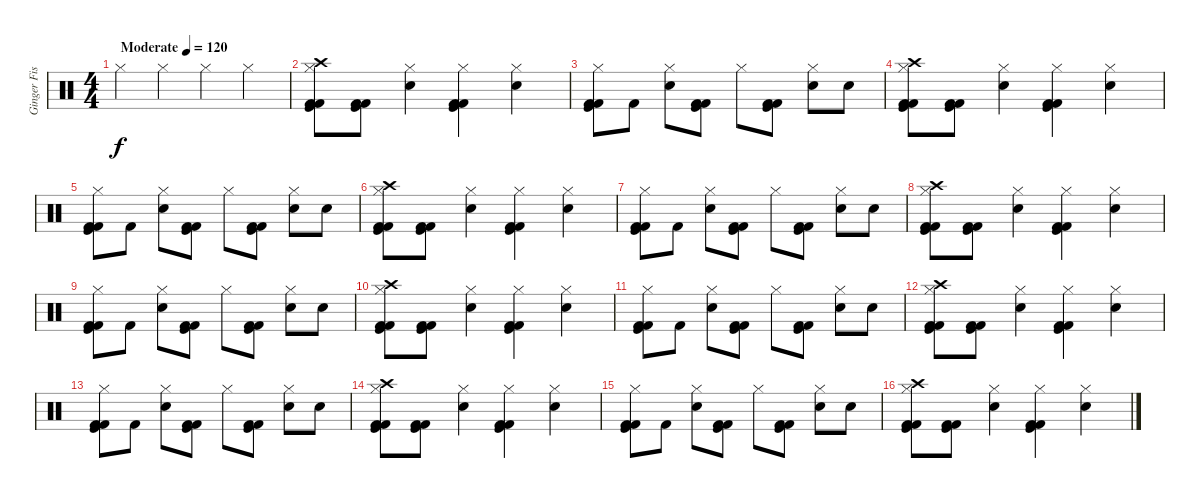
\track ("Ginger Fish" "Ginger Fis") {instrument percussion}
\staff {score}
\articulation defaults
\ts (4 4)
\tempo (120 "Moderate")
\clef neutral
\ks c "Hi-Hat (closed)".4{dy f} "Hi-Hat (closed)".4 "Hi-Hat (closed)".4 "Hi-Hat (closed)".4
|
("Crash high (hit)" "Hi-Hat (closed)" "Kick (hit) 2" "Kick (hit)" "Kick (hit) 2").8 ("Kick (hit) 2" "Kick (hit)" "Kick (hit) 2").8 ("Hi-Hat (closed)" "Electric Snare (hit)").4 ("Hi-Hat (closed)" "Kick (hit) 2" "Kick (hit)" "Kick (hit) 2").4 ("Hi-Hat (closed)" "Electric Snare (hit)").4 |
("Hi-Hat (closed)" "Kick (hit) 2" "Kick (hit)" "Kick (hit) 2").8 "Kick (hit) 2".8 ("Hi-Hat (closed)" "Electric Snare (hit)").8 ("Kick (hit) 2" "Kick (hit)" "Kick (hit) 2").8 "Hi-Hat (closed)".8 ("Kick (hit) 2" "Kick (hit)" "Kick (hit) 2").8 ("Hi-Hat (closed)" "Electric Snare (hit)").8 "Electric Snare (hit)".8 |
("Crash high (hit)" "Hi-Hat (closed)" "Kick (hit) 2" "Kick (hit)" "Kick (hit) 2").8 ("Kick (hit) 2" "Kick (hit)" "Kick (hit) 2").8 ("Hi-Hat (closed)" "Electric Snare (hit)").4 ("Hi-Hat (closed)" "Kick (hit) 2" "Kick (hit)" "Kick (hit) 2").4 ("Hi-Hat (closed)" "Electric Snare (hit)").4 |
("Hi-Hat (closed)" "Kick (hit) 2" "Kick (hit)" "Kick (hit) 2").8 "Kick (hit) 2".8 ("Hi-Hat (closed)" "Electric Snare (hit)").8 ("Kick (hit) 2" "Kick (hit)" "Kick (hit) 2").8 "Hi-Hat (closed)".8 ("Kick (hit) 2" "Kick (hit)" "Kick (hit) 2").8 ("Hi-Hat (closed)" "Electric Snare (hit)").8 "Electric Snare (hit)".8 |
("Crash high (hit)" "Hi-Hat (closed)" "Kick (hit) 2" "Kick (hit)" "Kick (hit) 2").8 ("Kick (hit) 2" "Kick (hit)" "Kick (hit) 2").8 ("Hi-Hat (closed)" "Electric Snare (hit)").4 ("Hi-Hat (closed)" "Kick (hit) 2" "Kick (hit)" "Kick (hit) 2").4 ("Hi-Hat (closed)" "Electric Snare (hit)").4 |
("Hi-Hat (closed)" "Kick (hit) 2" "Kick (hit)" "Kick (hit) 2").8 "Kick (hit) 2".8 ("Hi-Hat (closed)" "Electric Snare (hit)").8 ("Kick (hit) 2" "Kick (hit)" "Kick (hit) 2").8 "Hi-Hat (closed)".8 ("Kick (hit) 2" "Kick (hit)" "Kick (hit) 2").8 ("Hi-Hat (closed)" "Electric Snare (hit)").8 "Electric Snare (hit)".8 |
("Crash high (hit)" "Hi-Hat (closed)" "Kick (hit) 2" "Kick (hit)" "Kick (hit) 2").8 ("Kick (hit) 2" "Kick (hit)" "Kick (hit) 2").8 ("Hi-Hat (closed)" "Electric Snare (hit)").4 ("Hi-Hat (closed)" "Kick (hit) 2" "Kick (hit)" "Kick (hit) 2").4 ("Hi-Hat (closed)" "Electric Snare (hit)").4 |
("Hi-Hat (closed)" "Kick (hit) 2" "Kick (hit)" "Kick (hit) 2").8 "Kick (hit) 2".8 ("Hi-Hat (closed)" "Electric Snare (hit)").8 ("Kick (hit) 2" "Kick (hit)" "Kick (hit) 2").8 "Hi-Hat (closed)".8 ("Kick (hit) 2" "Kick (hit)" "Kick (hit) 2").8 ("Hi-Hat (closed)" "Electric Snare (hit)").8 "Electric Snare (hit)".8 |
("Crash high (hit)" "Hi-Hat (closed)" "Kick (hit) 2" "Kick (hit)" "Kick (hit) 2").8 ("Kick (hit) 2" "Kick (hit)" "Kick (hit) 2").8 ("Hi-Hat (closed)" "Electric Snare (hit)").4 ("Hi-Hat (closed)" "Kick (hit) 2" "Kick (hit)" "Kick (hit) 2").4 ("Hi-Hat (closed)" "Electric Snare (hit)").4 |
("Hi-Hat (closed)" "Kick (hit) 2" "Kick (hit)" "Kick (hit) 2").8 "Kick (hit) 2".8 ("Hi-Hat (closed)" "Electric Snare (hit)").8 ("Kick (hit) 2" "Kick (hit)" "Kick (hit) 2").8 "Hi-Hat (closed)".8 ("Kick (hit) 2" "Kick (hit)" "Kick (hit) 2").8 ("Hi-Hat (closed)" "Electric Snare (hit)").8 "Electric Snare (hit)".8 |
("Crash high (hit)" "Hi-Hat (closed)" "Kick (hit) 2" "Kick (hit)" "Kick (hit) 2").8 ("Kick (hit) 2" "Kick (hit)" "Kick (hit) 2").8 ("Hi-Hat (closed)" "Electric Snare (hit)").4 ("Hi-Hat (closed)" "Kick (hit) 2" "Kick (hit)" "Kick (hit) 2").4 ("Hi-Hat (closed)" "Electric Snare (hit)").4 |
("Hi-Hat (closed)" "Kick (hit) 2" "Kick (hit)" "Kick (hit) 2").8 "Kick (hit) 2".8 ("Hi-Hat (closed)" "Electric Snare (hit)").8 ("Kick (hit) 2" "Kick (hit)" "Kick (hit) 2").8 "Hi-Hat (closed)".8 ("Kick (hit) 2" "Kick (hit)" "Kick (hit) 2").8 ("Hi-Hat (closed)" "Electric Snare (hit)").8 "Electric Snare (hit)".8 |
("Crash high (hit)" "Hi-Hat (closed)" "Kick (hit) 2" "Kick (hit)" "Kick (hit) 2").8 ("Kick (hit) 2" "Kick (hit)" "Kick (hit) 2").8 ("Hi-Hat (closed)" "Electric Snare (hit)").4 ("Hi-Hat (closed)" "Kick (hit) 2" "Kick (hit)" "Kick (hit) 2").4 ("Hi-Hat (closed)" "Electric Snare (hit)").4 |
("Hi-Hat (closed)" "Kick (hit) 2" "Kick (hit)" "Kick (hit) 2").8 "Kick (hit) 2".8 ("Hi-Hat (closed)" "Electric Snare (hit)").8 ("Kick (hit) 2" "Kick (hit)" "Kick (hit) 2").8 "Hi-Hat (closed)".8 ("Kick (hit) 2" "Kick (hit)" "Kick (hit) 2").8 ("Hi-Hat (closed)" "Electric Snare (hit)").8 "Electric Snare (hit)".8 |
("Crash high (hit)" "Hi-Hat (closed)" "Kick (hit) 2" "Kick (hit)" "Kick (hit) 2").8 ("Kick (hit) 2" "Kick (hit)" "Kick (hit) 2").8 ("Hi-Hat (closed)" "Electric Snare (hit)").4 ("Hi-Hat (closed)" "Kick (hit) 2" "Kick (hit)" "Kick (hit) 2").4 ("Hi-Hat (closed)" "Electric Snare (hit)").4
